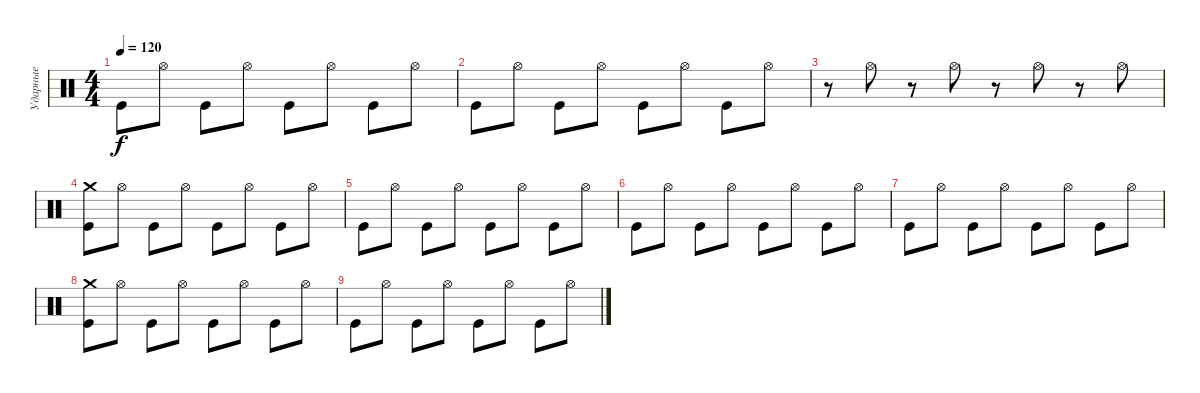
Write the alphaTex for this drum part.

\track ("Ударные" "Ударные") {instrument percussion}
\staff {score}
\articulation defaults
\ts (4 4)
\tempo 120
\clef neutral
\ks c "Kick (hit)".8{dy f} "Hi-Hat (open)".8 "Kick (hit)".8 "Hi-Hat (open)".8 "Kick (hit)".8 "Hi-Hat (open)".8 "Kick (hit)".8 "Hi-Hat (open)".8
|
"Kick (hit)".8 "Hi-Hat (open)".8 "Kick (hit)".8 "Hi-Hat (open)".8 "Kick (hit)".8 "Hi-Hat (open)".8 "Kick (hit)".8 "Hi-Hat (open)".8 |
r.8 "Hi-Hat (open)".8 r.8 "Hi-Hat (open)".8 r.8 "Hi-Hat (open)".8 r.8 "Hi-Hat (open)".8 |
("Kick (hit)" "Crash medium (hit)").8 "Hi-Hat (open)".8 "Kick (hit)".8 "Hi-Hat (open)".8 "Kick (hit)".8 "Hi-Hat (open)".8 "Kick (hit)".8 "Hi-Hat (open)".8 |
"Kick (hit)".8 "Hi-Hat (open)".8 "Kick (hit)".8 "Hi-Hat (open)".8 "Kick (hit)".8 "Hi-Hat (open)".8 "Kick (hit)".8 "Hi-Hat (open)".8 |
"Kick (hit)".8 "Hi-Hat (open)".8 "Kick (hit)".8 "Hi-Hat (open)".8 "Kick (hit)".8 "Hi-Hat (open)".8 "Kick (hit)".8 "Hi-Hat (open)".8 |
"Kick (hit)".8 "Hi-Hat (open)".8 "Kick (hit)".8 "Hi-Hat (open)".8 "Kick (hit)".8 "Hi-Hat (open)".8 "Kick (hit)".8 "Hi-Hat (open)".8 |
("Kick (hit)" "Crash medium (hit)").8 "Hi-Hat (open)".8 "Kick (hit)".8 "Hi-Hat (open)".8 "Kick (hit)".8 "Hi-Hat (open)".8 "Kick (hit)".8 "Hi-Hat (open)".8 |
"Kick (hit)".8 "Hi-Hat (open)".8 "Kick (hit)".8 "Hi-Hat (open)".8 "Kick (hit)".8 "Hi-Hat (open)".8 "Kick (hit)".8 "Hi-Hat (open)".8
